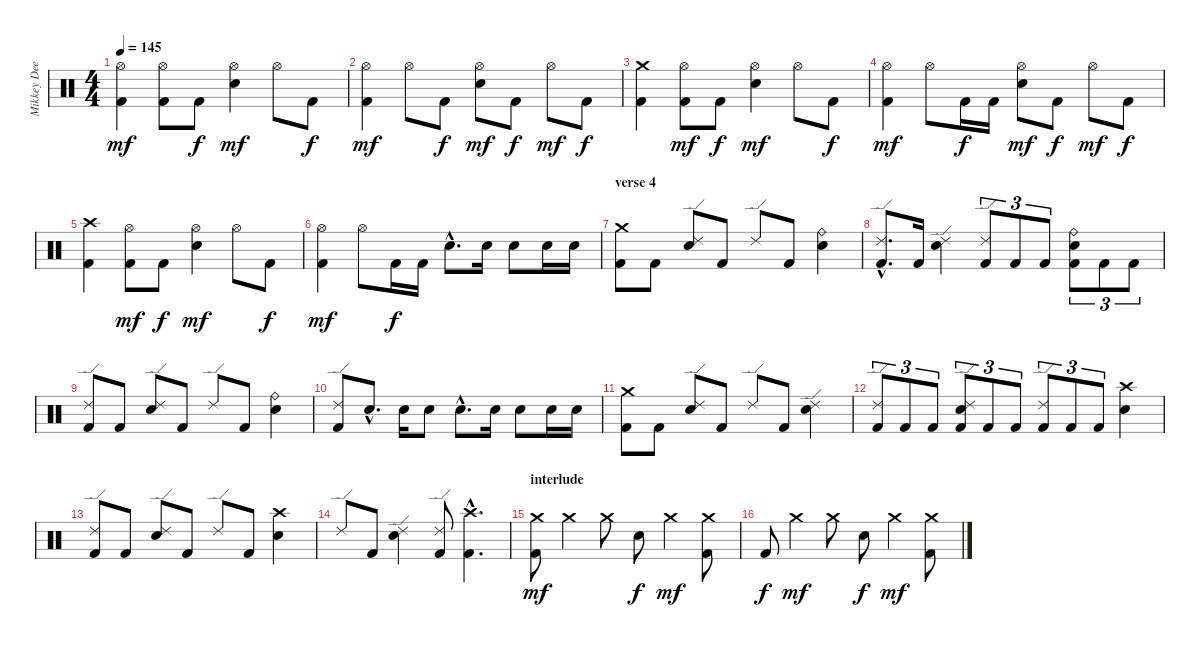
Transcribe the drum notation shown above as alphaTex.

\track ("Mikkey Dee" "Mikkey Dee") {instrument percussion}
\staff {score}
\articulation defaults
\ts (4 4)
\tempo 145
\clef neutral
\ks c
("Kick (hit) 2" "Hi-Hat (open)").4{dy mf} ("Kick (hit) 2" "Hi-Hat (open)").8 "Kick (hit) 2".8{dy f} ("Hi-Hat (open)" "Snare (hit) 2").4{dy mf} "Hi-Hat (open)".8 "Kick (hit) 2".8{dy f} |
("Kick (hit) 2" "Hi-Hat (open)").4{dy mf} "Hi-Hat (open)".8 "Kick (hit) 2".8{dy f} ("Hi-Hat (open)" "Snare (hit) 2").8{dy mf} "Kick (hit) 2".8{dy f} "Hi-Hat (open)".8{dy mf} "Kick (hit) 2".8{dy f} |
("Kick (hit) 2" "Crash medium (hit)").4 ("Kick (hit) 2" "Hi-Hat (open)").8{dy mf} "Kick (hit) 2".8{dy f} ("Hi-Hat (open)" "Snare (hit) 2").4{dy mf} "Hi-Hat (open)".8 "Kick (hit) 2".8{dy f} |
("Kick (hit) 2" "Hi-Hat (open)").4{dy mf} "Hi-Hat (open)".8 "Kick (hit) 2".16{dy f} "Kick (hit) 2".16 ("Hi-Hat (open)" "Snare (hit) 2").8{dy mf} "Kick (hit) 2".8{dy f} "Hi-Hat (open)".8{dy mf} "Kick (hit) 2".8{dy f} |
("Kick (hit) 2" "Crash high (hit)").4 ("Kick (hit) 2" "Hi-Hat (open)").8{dy mf} "Kick (hit) 2".8{dy f} ("Hi-Hat (open)" "Snare (hit) 2").4{dy mf} "Hi-Hat (open)".8 "Kick (hit) 2".8{dy f} |
("Kick (hit) 2" "Hi-Hat (open)").4{dy mf} "Hi-Hat (open)".8 "Kick (hit) 2".16{dy f} "Kick (hit) 2".16 "Snare (hit) 2"{hac}.8{d} "Snare (hit) 2".16 "Snare (hit) 2".8 "Snare (hit) 2".16 "Snare (hit) 2".16 |
\section ("" "verse 4")
("Kick (hit) 2" "Crash medium (hit)").8 "Kick (hit) 2".8 ("Ride (edge) 2" "Snare (hit) 2").8 "Kick (hit) 2".8 "Ride (edge) 2".8 "Kick (hit) 2".8 ("Ride (bell)" "Snare (hit) 2").4 |
("Kick (hit) 2"{hac} "Ride (edge) 2"{hac}).8{d} "Kick (hit) 2".16 ("Ride (edge) 2" "Snare (hit) 2").4 ("Kick (hit) 2" "Ride (edge) 2").8{tu (3 2)} "Kick (hit) 2".8{tu (3 2)} "Kick (hit) 2".8{tu (3 2)} ("Kick (hit) 2" "Ride (bell)" "Snare (hit) 2").8{tu (3 2)} "Kick (hit) 2".8{tu (3 2)} "Kick (hit) 2".8{tu (3 2)} |
("Kick (hit) 2" "Ride (edge) 2").8 "Kick (hit) 2".8 ("Ride (edge) 2" "Snare (hit) 2").8 "Kick (hit) 2".8 "Ride (edge) 2".8 "Kick (hit) 2".8 ("Ride (bell)" "Snare (hit) 2").4 |
("Kick (hit) 2" "Ride (edge) 2").8 "Snare (hit) 2"{hac}.8{d} "Snare (hit) 2".16 "Snare (hit) 2".8 "Snare (hit) 2"{hac}.8{d} "Snare (hit) 2".16 "Snare (hit) 2".8 "Snare (hit) 2".16 "Snare (hit) 2".16 |
("Kick (hit) 2" "Crash medium (hit)").8 "Kick (hit) 2".8 ("Ride (edge) 2" "Snare (hit) 2").8 "Kick (hit) 2".8 "Ride (edge) 2".8 "Kick (hit) 2".8 ("Ride (edge) 2" "Snare (hit) 2").4 |
("Kick (hit) 2" "Ride (edge) 2").8{tu (3 2)} "Kick (hit) 2".8{tu (3 2)} "Kick (hit) 2".8{tu (3 2)} ("Kick (hit) 2" "Ride (edge) 2" "Snare (hit) 2").8{tu (3 2)} "Kick (hit) 2".8{tu (3 2)} "Kick (hit) 2".8{tu (3 2)} ("Kick (hit) 2" "Ride (edge) 2").8{tu (3 2)} "Kick (hit) 2".8{tu (3 2)} "Kick (hit) 2".8{tu (3 2)} ("Crash high (hit)" "Snare (hit) 2").4 |
("Kick (hit) 2" "Ride (edge) 2").8 "Kick (hit) 2".8 ("Ride (edge) 2" "Snare (hit) 2").8 "Kick (hit) 2".8 "Ride (edge) 2".8 "Kick (hit) 2".8 ("Crash high (hit)" "Snare (hit) 2").4 |
"Ride (edge) 2".8 "Kick (hit) 2".8 ("Ride (edge) 2" "Snare (hit) 2").4 ("Kick (hit) 2" "Ride (edge) 2").8 ("Kick (hit) 2"{hac} "Crash high (hit)"{hac}).4{d} |
\section ("" "interlude")
("Kick (hit) 2" "Crash medium (hit)").8{dy mf} "Crash medium (hit)".4 "Crash medium (hit)".8 "Snare (hit) 2".8{dy f} "Crash medium (hit)".4{dy mf} ("Kick (hit) 2" "Crash medium (hit)").8 |
"Kick (hit) 2".8{dy f} "Crash medium (hit)".4{dy mf} "Crash medium (hit)".8 "Snare (hit) 2".8{dy f} "Crash medium (hit)".4{dy mf} ("Kick (hit) 2" "Crash medium (hit)").8
